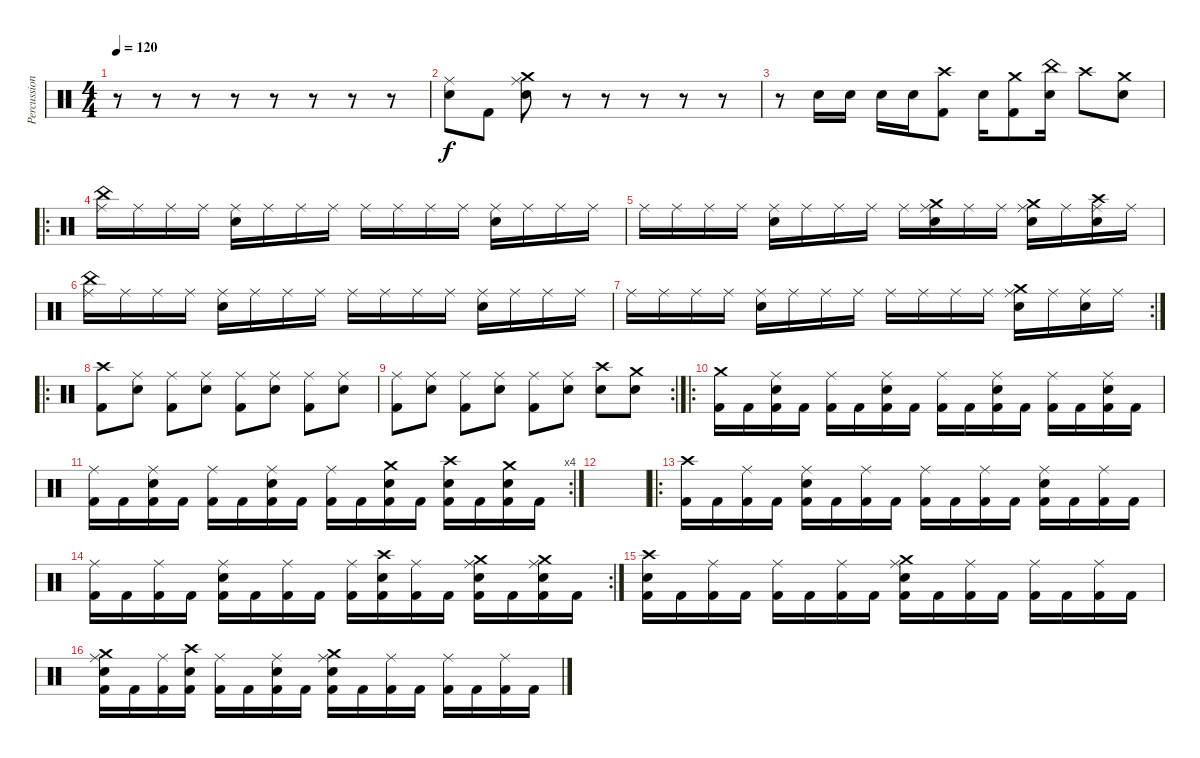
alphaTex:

\track ("Percussion" "Percussion") {instrument percussion}
\staff {score}
\articulation defaults
\ts (4 4)
\tempo 120
\clef neutral
\ks c
r.8{dy f} r.8 r.8 r.8 r.8 r.8 r.8 r.8 |
("Ride (middle)" "Snare (hit) 2").8 "Kick (hit) 2".8 ("Crash medium (hit)" "Snare (hit) 2" "Ride (middle)").8 r.8 r.8 r.8 r.8 r.8 |
r.8 "Snare (hit) 2".16 "Snare (hit) 2".16 "Snare (hit) 2".16 "Snare (hit) 2".16 ("Crash high (hit)" "Kick (hit) 2").8 "Snare (hit) 2".16 ("Crash medium (hit)" "Kick (hit) 2").8 ("China (hit)" "Snare (hit) 2").16 "Crash high (hit)".8 ("Crash medium (hit)" "Snare (hit) 2").8 |
\ro
("China (hit)" "Ride (middle)").16 "Ride (middle)".16 "Ride (middle)".16 "Ride (middle)".16 ("Ride (middle)" "Snare (hit) 2").16 "Ride (middle)".16 "Ride (middle)".16 "Ride (middle)".16 "Ride (middle)".16 "Ride (middle)".16 "Ride (middle)".16 "Ride (middle)".16 ("Snare (hit) 2" "Ride (middle)").16 "Ride (middle)".16 "Ride (middle)".16 "Ride (middle)".16 |
"Ride (middle)".16 "Ride (middle)".16 "Ride (middle)".16 "Ride (middle)".16 ("Ride (middle)" "Snare (hit) 2").16 "Ride (middle)".16 "Ride (middle)".16 "Ride (middle)".16 "Ride (middle)".16 ("Crash medium (hit)" "Snare (hit) 2" "Ride (middle)").16 "Ride (middle)".16 "Ride (middle)".16 ("Crash medium (hit)" "Snare (hit) 2" "Ride (middle)").16 "Ride (middle)".16 ("Crash high (hit)" "Snare (hit) 2" "Ride (middle)").16 "Ride (middle)".16 |
("China (hit)" "Ride (middle)").16 "Ride (middle)".16 "Ride (middle)".16 "Ride (middle)".16 ("Ride (middle)" "Snare (hit) 2").16 "Ride (middle)".16 "Ride (middle)".16 "Ride (middle)".16 "Ride (middle)".16 "Ride (middle)".16 "Ride (middle)".16 "Ride (middle)".16 ("Snare (hit) 2" "Ride (middle)").16 "Ride (middle)".16 "Ride (middle)".16 "Ride (middle)".16 |
\rc 2 "Ride (middle)".16 "Ride (middle)".16 "Ride (middle)".16 "Ride (middle)".16
("Ride (middle)" "Snare (hit) 2").16 "Ride (middle)".16 "Ride (middle)".16 "Ride (middle)".16 "Ride (middle)".16 "Ride (middle)".16 "Ride (middle)".16 "Ride (middle)".16 ("Crash medium (hit)" "Snare (hit) 2" "Ride (middle)").16 "Ride (middle)".16 ("Snare (hit) 2" "Ride (middle)").16 "Ride (middle)".16 |
\ro
("Crash high (hit)" "Kick (hit) 2").8 ("Ride (middle)" "Snare (hit) 2").8 ("Ride (middle)" "Kick (hit) 2").8 ("Ride (middle)" "Snare (hit) 2").8 ("Ride (middle)" "Kick (hit) 2").8 ("Ride (middle)" "Snare (hit) 2").8 ("Ride (middle)" "Kick (hit) 2").8 ("Ride (middle)" "Snare (hit) 2").8 |
\rc 2
("Ride (middle)" "Kick (hit) 2").8 ("Ride (middle)" "Snare (hit) 2").8 ("Ride (middle)" "Kick (hit) 2").8 ("Ride (middle)" "Snare (hit) 2").8 ("Ride (middle)" "Kick (hit) 2").8 ("Ride (middle)" "Snare (hit) 2").8 ("Crash high (hit)" "Snare (hit) 2").8 ("Crash medium (hit)" "Snare (hit) 2").8 |
\ro
("Crash medium (hit)" "Kick (hit) 2").16 "Kick (hit) 2".16 ("Ride (middle)" "Snare (hit) 2" "Kick (hit) 2").16 "Kick (hit) 2".16 ("Ride (middle)" "Kick (hit) 2").16 "Kick (hit) 2".16 ("Ride (middle)" "Snare (hit) 2" "Kick (hit) 2").16 "Kick (hit) 2".16 ("Ride (middle)" "Kick (hit) 2").16 "Kick (hit) 2".16 ("Ride (middle)" "Snare (hit) 2" "Kick (hit) 2").16 "Kick (hit) 2".16 ("Ride (middle)" "Kick (hit) 2").16 "Kick (hit) 2".16 ("Ride (middle)" "Snare (hit) 2" "Kick (hit) 2").16 "Kick (hit) 2".16 |
\rc 4
("Ride (middle)" "Kick (hit) 2").16 "Kick (hit) 2".16 ("Ride (middle)" "Snare (hit) 2" "Kick (hit) 2").16 "Kick (hit) 2".16 ("Ride (middle)" "Kick (hit) 2").16 "Kick (hit) 2".16 ("Ride (middle)" "Snare (hit) 2" "Kick (hit) 2").16 "Kick (hit) 2".16 ("Ride (middle)" "Kick (hit) 2").16 "Kick (hit) 2".16 ("Crash medium (hit)" "Snare (hit) 2" "Kick (hit) 2").16 "Kick (hit) 2".16 ("Crash high (hit)" "Snare (hit) 2" "Kick (hit) 2").16 "Kick (hit) 2".16 ("Crash medium (hit)" "Snare (hit) 2" "Kick (hit) 2").16 "Kick (hit) 2".16 |
|
\ro
("Crash high (hit)" "Kick (hit) 2").16 "Kick (hit) 2".16 ("Ride (middle)" "Kick (hit) 2").16 "Kick (hit) 2".16 ("Ride (middle)" "Snare (hit) 2" "Kick (hit) 2").16 "Kick (hit) 2".16 ("Ride (middle)" "Kick (hit) 2").16 "Kick (hit) 2".16 ("Ride (middle)" "Kick (hit) 2").16 "Kick (hit) 2".16 ("Ride (middle)" "Kick (hit) 2").16 "Kick (hit) 2".16 ("Ride (middle)" "Snare (hit) 2" "Kick (hit) 2").16 "Kick (hit) 2".16 ("Ride (middle)" "Kick (hit) 2").16 "Kick (hit) 2".16 |
\rc 2
("Ride (middle)" "Kick (hit) 2").16 "Kick (hit) 2".16 ("Ride (middle)" "Kick (hit) 2").16 "Kick (hit) 2".16 ("Ride (middle)" "Snare (hit) 2" "Kick (hit) 2").16 "Kick (hit) 2".16 ("Ride (middle)" "Kick (hit) 2").16 "Kick (hit) 2".16 ("Ride (middle)" "Kick (hit) 2").16 ("Crash high (hit)" "Snare (hit) 2" "Kick (hit) 2").16 ("Ride (middle)" "Kick (hit) 2").16 "Kick (hit) 2".16 ("Crash medium (hit)" "Ride (middle)" "Snare (hit) 2" "Kick (hit) 2").16 "Kick (hit) 2".16 ("Crash medium (hit)" "Ride (middle)" "Snare (hit) 2" "Kick (hit) 2").16 "Kick (hit) 2".16 |
("Crash high (hit)" "Snare (hit) 2" "Kick (hit) 2").16 "Kick (hit) 2".16 ("Ride (middle)" "Kick (hit) 2").16 "Kick (hit) 2".16 ("Ride (middle)" "Kick (hit) 2").16 "Kick (hit) 2".16 ("Ride (middle)" "Kick (hit) 2").16 "Kick (hit) 2".16 ("Crash medium (hit)" "Ride (middle)" "Snare (hit) 2" "Kick (hit) 2").16 "Kick (hit) 2".16 ("Ride (middle)" "Kick (hit) 2").16 "Kick (hit) 2".16 ("Ride (middle)" "Kick (hit) 2").16 "Kick (hit) 2".16 ("Ride (middle)" "Kick (hit) 2").16 "Kick (hit) 2".16 |
("Crash medium (hit)" "Ride (middle)" "Snare (hit) 2" "Kick (hit) 2").16 "Kick (hit) 2".16 ("Ride (middle)" "Kick (hit) 2").16 ("Crash high (hit)" "Snare (hit) 2" "Kick (hit) 2").16 ("Ride (middle)" "Kick (hit) 2").16 "Kick (hit) 2".16 ("Ride (middle)" "Snare (hit) 2" "Kick (hit) 2").16 "Kick (hit) 2".16 ("Crash medium (hit)" "Ride (middle)" "Snare (hit) 2" "Kick (hit) 2").16 "Kick (hit) 2".16 ("Ride (middle)" "Kick (hit) 2").16 "Kick (hit) 2".16 ("Ride (middle)" "Kick (hit) 2").16 "Kick (hit) 2".16 ("Ride (middle)" "Kick (hit) 2").16 "Kick (hit) 2".16
